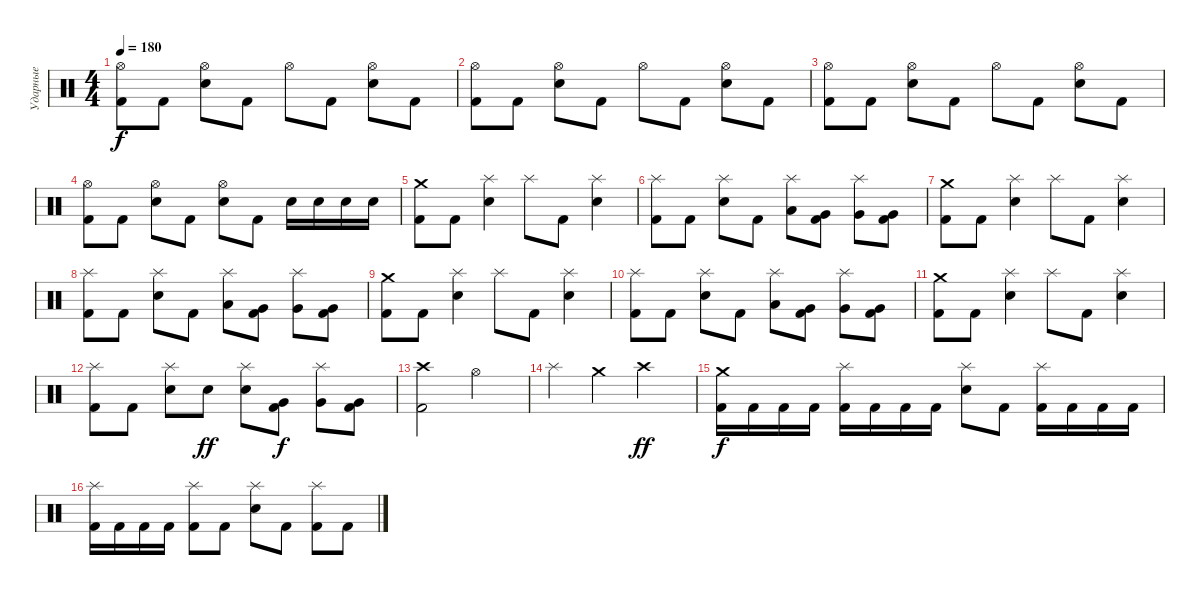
\track ("Ударные" "Ударные") {instrument percussion bank 127}
\staff {score}
\articulation defaults
\ts (4 4)
\tempo 180
\clef neutral
\ks c
("Hi-Hat (open)" "Kick (hit) 2").8{dy f} "Kick (hit) 2".8 ("Hi-Hat (open)" "Snare (hit) 2").8 "Kick (hit) 2".8 "Hi-Hat (open)".8 "Kick (hit) 2".8 ("Hi-Hat (open)" "Snare (hit) 2").8 "Kick (hit) 2".8 |
("Hi-Hat (open)" "Kick (hit) 2").8 "Kick (hit) 2".8 ("Hi-Hat (open)" "Snare (hit) 2").8 "Kick (hit) 2".8 "Hi-Hat (open)".8 "Kick (hit) 2".8 ("Hi-Hat (open)" "Snare (hit) 2").8 "Kick (hit) 2".8 |
("Hi-Hat (open)" "Kick (hit) 2").8 "Kick (hit) 2".8 ("Hi-Hat (open)" "Snare (hit) 2").8 "Kick (hit) 2".8 "Hi-Hat (open)".8 "Kick (hit) 2".8 ("Hi-Hat (open)" "Snare (hit) 2").8 "Kick (hit) 2".8 |
("Hi-Hat (open)" "Kick (hit) 2").8 "Kick (hit) 2".8 ("Hi-Hat (open)" "Snare (hit) 2").8 "Kick (hit) 2".8 ("Hi-Hat (open)" "Snare (hit) 2").8 "Kick (hit) 2".8 "Snare (hit) 2".16 "Snare (hit) 2".16 "Snare (hit) 2".16 "Snare (hit) 2".16 |
("Crash medium (hit)" "Kick (hit) 2").8 "Kick (hit) 2".8 ("Splash (hit)" "Snare (hit) 2").4 "Splash (hit)".8 "Kick (hit) 2".8 ("Splash (hit)" "Snare (hit) 2").4 |
("Splash (hit)" "Kick (hit) 2").8 "Kick (hit) 2".8 ("Splash (hit)" "Snare (hit) 2").8 "Kick (hit) 2".8 ("Splash (hit)" "Low Tom (hit)").8 ("Very Low Tom (hit)" "Kick (hit) 2").8 ("Splash (hit)" "Very Low Tom (hit)").8 ("Very Low Tom (hit)" "Kick (hit) 2").8 |
("Crash medium (hit)" "Kick (hit) 2").8 "Kick (hit) 2".8 ("Splash (hit)" "Snare (hit) 2").4 "Splash (hit)".8 "Kick (hit) 2".8 ("Splash (hit)" "Snare (hit) 2").4 |
("Splash (hit)" "Kick (hit) 2").8 "Kick (hit) 2".8 ("Splash (hit)" "Snare (hit) 2").8 "Kick (hit) 2".8 ("Splash (hit)" "Low Tom (hit)").8 ("Very Low Tom (hit)" "Kick (hit) 2").8 ("Splash (hit)" "Very Low Tom (hit)").8 ("Very Low Tom (hit)" "Kick (hit) 2").8 |
("Crash medium (hit)" "Kick (hit) 2").8 "Kick (hit) 2".8 ("Splash (hit)" "Snare (hit) 2").4 "Splash (hit)".8 "Kick (hit) 2".8 ("Splash (hit)" "Snare (hit) 2").4 |
("Splash (hit)" "Kick (hit) 2").8 "Kick (hit) 2".8 ("Splash (hit)" "Snare (hit) 2").8 "Kick (hit) 2".8 ("Splash (hit)" "Low Tom (hit)").8 ("Very Low Tom (hit)" "Kick (hit) 2").8 ("Splash (hit)" "Very Low Tom (hit)").8 ("Very Low Tom (hit)" "Kick (hit) 2").8 |
("Crash medium (hit)" "Kick (hit) 2").8 "Kick (hit) 2".8 ("Splash (hit)" "Snare (hit) 2").4 "Splash (hit)".8 "Kick (hit) 2".8 ("Splash (hit)" "Snare (hit) 2").4 |
("Splash (hit)" "Kick (hit) 2").8 "Kick (hit) 2".8 ("Splash (hit)" "Snare (hit) 2").8 "Snare (hit) 2".8{dy ff} ("Splash (hit)" "Snare (hit) 2").8 ("Very Low Tom (hit)" "Kick (hit) 2").8{dy f} ("Splash (hit)" "Very Low Tom (hit)").8 ("Very Low Tom (hit)" "Kick (hit) 2").8 |
("Crash high (hit)" "Kick (hit) 2").2 "Hi-Hat (open)".2 |
"Splash (hit)".4 "Crash medium (hit)".4 "Crash high (hit)".2{dy ff} |
("Crash medium (hit)" "Kick (hit) 2").16{dy f} "Kick (hit) 2".16 "Kick (hit) 2".16 "Kick (hit) 2".16 ("Splash (hit)" "Kick (hit) 2").16 "Kick (hit) 2".16 "Kick (hit) 2".16 "Kick (hit) 2".16 ("Splash (hit)" "Snare (hit) 2").8 "Kick (hit) 2".8 ("Splash (hit)" "Kick (hit) 2").16 "Kick (hit) 2".16 "Kick (hit) 2".16 "Kick (hit) 2".16 |
("Splash (hit)" "Kick (hit) 2").16 "Kick (hit) 2".16 "Kick (hit) 2".16 "Kick (hit) 2".16 ("Splash (hit)" "Kick (hit) 2").8 "Kick (hit) 2".8 ("Splash (hit)" "Snare (hit) 2").8 "Kick (hit) 2".8 ("Splash (hit)" "Kick (hit) 2").8 "Kick (hit) 2".8
